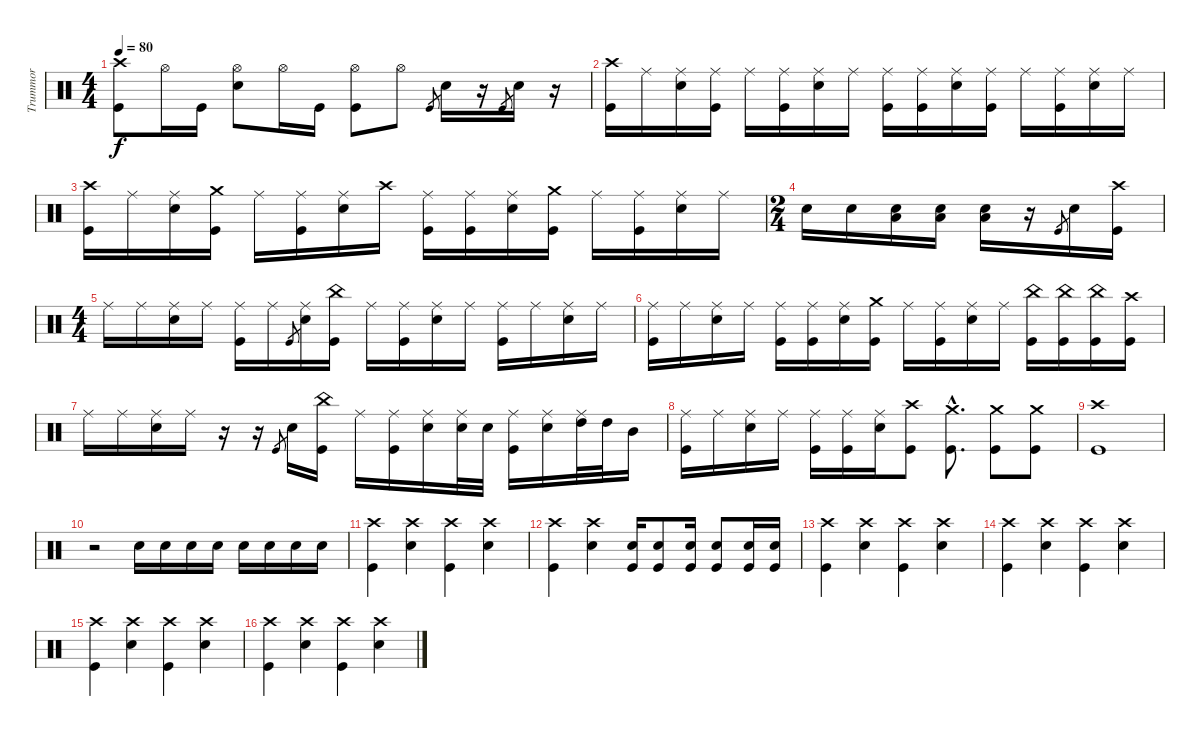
\track ("Trummor" "Trummor") {instrument percussion}
\staff {score}
\articulation defaults
\ts (4 4)
\tempo 80
\clef neutral
\ks c
("Crash high (hit)" "Kick (hit)").8{dy f} "Hi-Hat (open)".16 "Kick (hit)".16 ("Hi-Hat (open)" "Electric Snare (hit)").8 "Hi-Hat (open)".16 "Kick (hit)".16 ("Hi-Hat (open)" "Kick (hit)").8 "Hi-Hat (open)".8 "Kick (hit)"{sl}.8{gr} "Electric Snare (hit)".16 r.16 "Kick (hit)"{sl}.8{gr} "Electric Snare (hit)".16 r.16 |
("Crash high (hit)" "Kick (hit)").16 "Ride (middle)".16 ("Ride (middle)" "Electric Snare (hit)").16 ("Ride (middle)" "Kick (hit)").16 "Ride (middle)".16 ("Ride (middle)" "Kick (hit)").16 ("Ride (middle)" "Electric Snare (hit)").16 "Ride (middle)".16 ("Ride (middle)" "Kick (hit)").16 ("Ride (middle)" "Kick (hit)").16 ("Ride (middle)" "Electric Snare (hit)").16 ("Ride (middle)" "Kick (hit)").16 "Ride (middle)".16 ("Ride (middle)" "Kick (hit)").16 ("Ride (middle)" "Electric Snare (hit)").16 "Ride (middle)".16 |
("Crash high (hit)" "Kick (hit)").16 "Ride (middle)".16 ("Ride (middle)" "Electric Snare (hit)").16 ("Crash medium (hit)" "Kick (hit)").16 "Ride (middle)".16 ("Ride (middle)" "Kick (hit)").16 ("Ride (middle)" "Electric Snare (hit)").16 "Crash high (hit)".16 ("Ride (middle)" "Kick (hit)").16 ("Ride (middle)" "Kick (hit)").16 ("Ride (middle)" "Electric Snare (hit)").16 ("Crash medium (hit)" "Kick (hit)").16 "Ride (middle)".16 ("Ride (middle)" "Kick (hit)").16 ("Ride (middle)" "Electric Snare (hit)").16 "Ride (middle)".16 |
\ts (2 4)
"Electric Snare (hit)".16 "Electric Snare (hit)".16 ("Electric Snare (hit)" "Low Floor Tom (hit)").16 ("Electric Snare (hit)" "Low Floor Tom (hit)").16 ("Electric Snare (hit)" "Low Floor Tom (hit)").16 r.16 "Kick (hit)"{sl}.8{gr} "Electric Snare (hit)".16 ("Crash high (hit)" "Kick (hit)").16 |
\ts (4 4)
"Ride (middle)".16 "Ride (middle)".16 ("Ride (middle)" "Electric Snare (hit)").16 "Ride (middle)".16 ("Ride (middle)" "Kick (hit)").16 "Ride (middle)".16 "Kick (hit)"{sl}.8{gr} ("Ride (middle)" "Electric Snare (hit)").16 ("China (hit)" "Kick (hit)").16 "Ride (middle)".16 ("Ride (middle)" "Kick (hit)").16 ("Ride (middle)" "Electric Snare (hit)").16 "Ride (middle)".16 ("Ride (middle)" "Kick (hit)").16 "Ride (middle)".16 ("Ride (middle)" "Electric Snare (hit)").16 "Ride (middle)".16 |
("Ride (middle)" "Kick (hit)").16 "Ride (middle)".16 ("Ride (middle)" "Electric Snare (hit)").16 "Ride (middle)".16 ("Ride (middle)" "Kick (hit)").16 ("Ride (middle)" "Kick (hit)").16 ("Ride (middle)" "Electric Snare (hit)").16 ("Crash medium (hit)" "Kick (hit)").16 "Ride (middle)".16 ("Ride (middle)" "Kick (hit)").16 ("Ride (middle)" "Electric Snare (hit)").16 "Ride (middle)".16 ("China (hit)" "Kick (hit)").16 ("China (hit)" "Kick (hit)").16 ("China (hit)" "Kick (hit)").16 ("Crash high (hit)" "Kick (hit)").16 |
"Ride (middle)".16 "Ride (middle)".16 ("Ride (middle)" "Electric Snare (hit)").16 "Ride (middle)".16 r.16 r.16 "Kick (hit)"{sl}.8{gr} "Electric Snare (hit)".16 ("China (hit)" "Kick (hit)").16 "Ride (middle)".16 ("Ride (middle)" "Kick (hit)").16 ("Ride (middle)" "Electric Snare (hit)").16 ("Ride (middle)" "Electric Snare (hit)").32 "Electric Snare (hit)".32 ("Ride (middle)" "Kick (hit)").16 ("Ride (middle)" "Electric Snare (hit)").16 ("Ride (middle)" "High Tom (hit)").32 "High Tom (hit)".32 "Mid Tom (hit)".16 |
("Ride (middle)" "Kick (hit)").16 "Ride (middle)".16 ("Ride (middle)" "Electric Snare (hit)").16 "Ride (middle)".16 ("Ride (middle)" "Kick (hit)").16 ("Ride (middle)" "Kick (hit)").16 ("Ride (middle)" "Electric Snare (hit)").16 ("Crash high (hit)" "Kick (hit)").8 ("Crash medium (hit)"{hac} "Kick (hit)"{hac}).8{d} ("Crash medium (hit)" "Kick (hit)").8 ("Crash medium (hit)" "Kick (hit)").8 |
("Crash high (hit)" "Kick (hit)").1 |
r.2 "Electric Snare (hit)".16 "Electric Snare (hit)".16 "Electric Snare (hit)".16 "Electric Snare (hit)".16 "Electric Snare (hit)".16 "Electric Snare (hit)".16 "Electric Snare (hit)".16 "Electric Snare (hit)".16 |
("Crash high (hit)" "Kick (hit)").4 ("Crash high (hit)" "Electric Snare (hit)").4 ("Crash high (hit)" "Kick (hit)").4 ("Crash high (hit)" "Electric Snare (hit)").4 |
("Crash high (hit)" "Kick (hit)").4 ("Crash high (hit)" "Electric Snare (hit)").4 ("Electric Snare (hit)" "Kick (hit)").16 ("Electric Snare (hit)" "Kick (hit)").8 ("Electric Snare (hit)" "Kick (hit)").16 ("Electric Snare (hit)" "Kick (hit)").8 ("Electric Snare (hit)" "Kick (hit)").16 ("Electric Snare (hit)" "Kick (hit)").16 |
("Crash high (hit)" "Kick (hit)").4 ("Crash high (hit)" "Electric Snare (hit)").4 ("Crash high (hit)" "Kick (hit)").4 ("Crash high (hit)" "Electric Snare (hit)").4 |
("Crash high (hit)" "Kick (hit)").4 ("Crash high (hit)" "Electric Snare (hit)").4 ("Crash high (hit)" "Kick (hit)").4 ("Crash high (hit)" "Electric Snare (hit)").4 |
("Crash high (hit)" "Kick (hit)").4 ("Crash high (hit)" "Electric Snare (hit)").4 ("Crash high (hit)" "Kick (hit)").4 ("Crash high (hit)" "Electric Snare (hit)").4 |
("Crash high (hit)" "Kick (hit)").4 ("Crash high (hit)" "Electric Snare (hit)").4 ("Crash high (hit)" "Kick (hit)").4 ("Crash high (hit)" "Electric Snare (hit)").4
